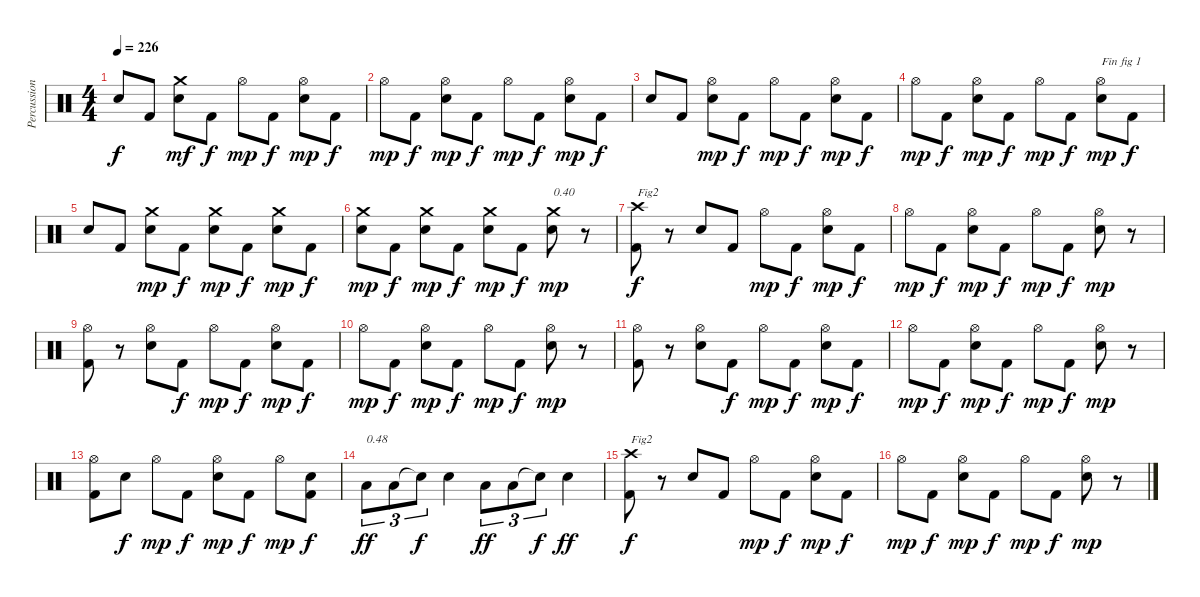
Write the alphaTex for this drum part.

\track ("Percussions" "Percussion") {instrument percussion}
\staff {score}
\articulation defaults
\ts (4 4)
\tempo 226
\clef neutral
\ks c "Electric Snare (hit)".8{dy f} "Kick (hit) 2".8
("Electric Snare (hit)" "Crash medium (hit)").8{dy mf} "Kick (hit) 2".8{dy f} "Hi-Hat (open)".8{dy mp} "Kick (hit) 2".8{dy f} ("Electric Snare (hit)" "Hi-Hat (open)").8{dy mp} "Kick (hit) 2".8{dy f} |
"Hi-Hat (open)".8{dy mp} "Kick (hit) 2".8{dy f} ("Electric Snare (hit)" "Hi-Hat (open)").8{dy mp} "Kick (hit) 2".8{dy f} "Hi-Hat (open)".8{dy mp} "Kick (hit) 2".8{dy f} ("Electric Snare (hit)" "Hi-Hat (open)").8{dy mp} "Kick (hit) 2".8{dy f} |
"Electric Snare (hit)".8 "Kick (hit) 2".8 ("Electric Snare (hit)" "Hi-Hat (open)").8{dy mp} "Kick (hit) 2".8{dy f} "Hi-Hat (open)".8{dy mp} "Kick (hit) 2".8{dy f} ("Electric Snare (hit)" "Hi-Hat (open)").8{dy mp} "Kick (hit) 2".8{dy f} |
"Hi-Hat (open)".8{dy mp} "Kick (hit) 2".8{dy f} ("Electric Snare (hit)" "Hi-Hat (open)").8{dy mp} "Kick (hit) 2".8{dy f} "Hi-Hat (open)".8{dy mp} "Kick (hit) 2".8{dy f} ("Electric Snare (hit)" "Hi-Hat (open)").8{txt "Fin fig 1" dy mp} "Kick (hit) 2".8{dy f} |
"Electric Snare (hit)".8 "Kick (hit) 2".8 ("Electric Snare (hit)" "Crash medium (hit)").8{dy mp} "Kick (hit) 2".8{dy f} ("Electric Snare (hit)" "Crash medium (hit)").8{dy mp} "Kick (hit) 2".8{dy f} ("Electric Snare (hit)" "Crash medium (hit)").8{dy mp} "Kick (hit) 2".8{dy f} |
("Electric Snare (hit)" "Crash medium (hit)").8{dy mp} "Kick (hit) 2".8{dy f} ("Electric Snare (hit)" "Crash medium (hit)").8{dy mp} "Kick (hit) 2".8{dy f} ("Electric Snare (hit)" "Crash medium (hit)").8{dy mp} "Kick (hit) 2".8{dy f} ("Electric Snare (hit)" "Crash medium (hit)").8{txt "0.40" dy mp} r.8 |
("Kick (hit) 2" "Crash high (hit)").8{txt "Fig2" dy f} r.8 "Electric Snare (hit)".8 "Kick (hit) 2".8 "Hi-Hat (open)".8{dy mp} "Kick (hit) 2".8{dy f} ("Electric Snare (hit)" "Hi-Hat (open)").8{dy mp} "Kick (hit) 2".8{dy f} |
"Hi-Hat (open)".8{dy mp} "Kick (hit) 2".8{dy f} ("Electric Snare (hit)" "Hi-Hat (open)").8{dy mp} "Kick (hit) 2".8{dy f} "Hi-Hat (open)".8{dy mp} "Kick (hit) 2".8{dy f} ("Electric Snare (hit)" "Hi-Hat (open)").8{dy mp} r.8 |
("Kick (hit) 2" "Hi-Hat (open)").8 r.8 ("Electric Snare (hit)" "Hi-Hat (open)").8 "Kick (hit) 2".8{dy f} "Hi-Hat (open)".8{dy mp} "Kick (hit) 2".8{dy f} ("Electric Snare (hit)" "Hi-Hat (open)").8{dy mp} "Kick (hit) 2".8{dy f} |
"Hi-Hat (open)".8{dy mp} "Kick (hit) 2".8{dy f} ("Electric Snare (hit)" "Hi-Hat (open)").8{dy mp} "Kick (hit) 2".8{dy f} "Hi-Hat (open)".8{dy mp} "Kick (hit) 2".8{dy f} ("Electric Snare (hit)" "Hi-Hat (open)").8{dy mp} r.8 |
("Kick (hit) 2" "Hi-Hat (open)").8 r.8 ("Electric Snare (hit)" "Hi-Hat (open)").8 "Kick (hit) 2".8{dy f} "Hi-Hat (open)".8{dy mp} "Kick (hit) 2".8{dy f} ("Electric Snare (hit)" "Hi-Hat (open)").8{dy mp} "Kick (hit) 2".8{dy f} |
"Hi-Hat (open)".8{dy mp} "Kick (hit) 2".8{dy f} ("Electric Snare (hit)" "Hi-Hat (open)").8{dy mp} "Kick (hit) 2".8{dy f} "Hi-Hat (open)".8{dy mp} "Kick (hit) 2".8{dy f} ("Electric Snare (hit)" "Hi-Hat (open)").8{dy mp} r.8 |
("Kick (hit) 2" "Hi-Hat (open)").8 "Electric Snare (hit)".8{dy f} "Hi-Hat (open)".8{dy mp} "Kick (hit) 2".8{dy f} ("Electric Snare (hit)" "Hi-Hat (open)").8{dy mp} "Kick (hit) 2".8{dy f} "Hi-Hat (open)".8{dy mp} ("Kick (hit) 2" "Electric Snare (hit)").8{dy f} |
"Low Floor Tom (hit)".8{tu (3 2) txt "0.48" dy ff} "Low Floor Tom (hit)".8{tu (3 2)} "Snare (hit)"{t}.8{tu (3 2) dy f} "Electric Snare (hit)".4 "Low Floor Tom (hit)".8{tu (3 2) dy ff} "Low Floor Tom (hit)".8{tu (3 2)} "Snare (hit)"{t}.8{tu (3 2) dy f} "Electric Snare (hit)".4{dy ff} |
("Kick (hit) 2" "Crash high (hit)").8{txt "Fig2" dy f} r.8 "Electric Snare (hit)".8 "Kick (hit) 2".8 "Hi-Hat (open)".8{dy mp} "Kick (hit) 2".8{dy f} ("Electric Snare (hit)" "Hi-Hat (open)").8{dy mp} "Kick (hit) 2".8{dy f} |
"Hi-Hat (open)".8{dy mp} "Kick (hit) 2".8{dy f} ("Electric Snare (hit)" "Hi-Hat (open)").8{dy mp} "Kick (hit) 2".8{dy f} "Hi-Hat (open)".8{dy mp} "Kick (hit) 2".8{dy f} ("Electric Snare (hit)" "Hi-Hat (open)").8{dy mp} r.8
